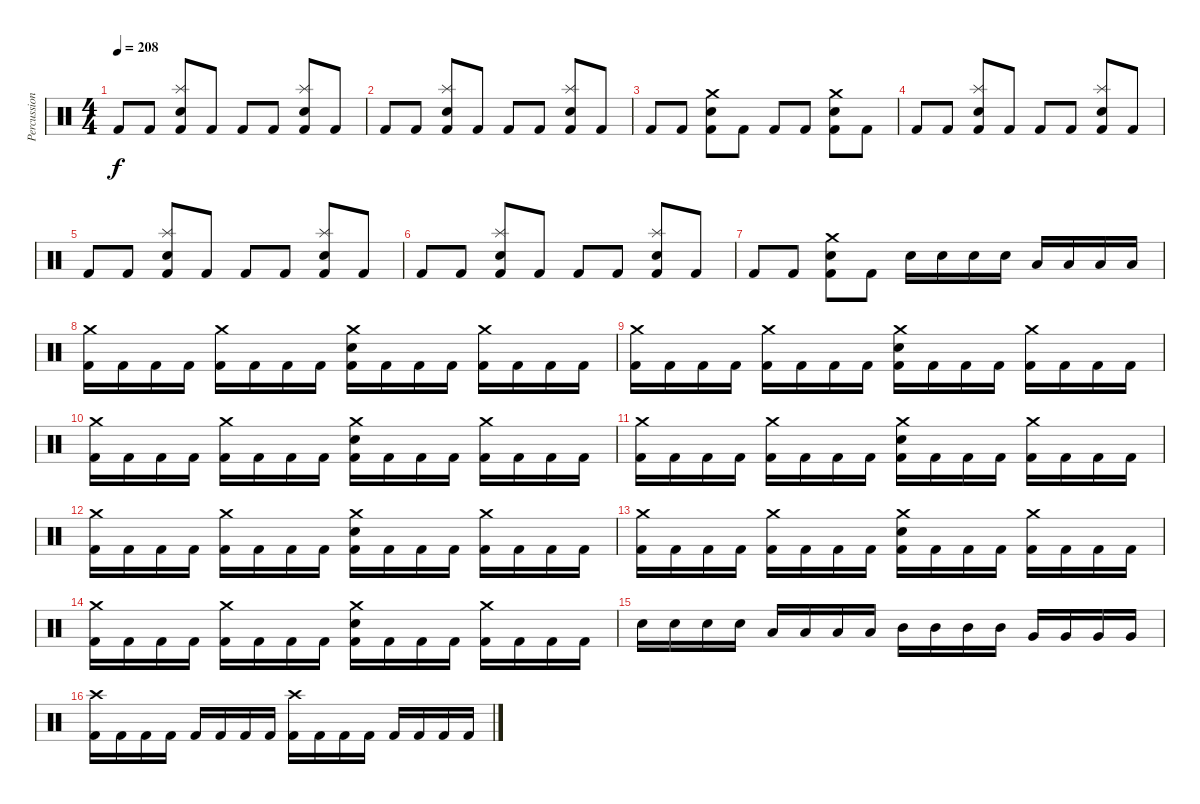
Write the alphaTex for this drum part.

\track ("Percussion" "Percussion") {instrument percussion}
\staff {score}
\articulation defaults
\ts (4 4)
\tempo 208
\clef neutral
\ks c "Kick (hit) 2".8{dy f} "Kick (hit) 2".8
("Splash (hit)" "Electric Snare (hit)" "Kick (hit) 2").8 "Kick (hit) 2".8 "Kick (hit) 2".8 "Kick (hit) 2".8 ("Splash (hit)" "Electric Snare (hit)" "Kick (hit) 2").8 "Kick (hit) 2".8 |
"Kick (hit) 2".8 "Kick (hit) 2".8 ("Splash (hit)" "Electric Snare (hit)" "Kick (hit) 2").8 "Kick (hit) 2".8 "Kick (hit) 2".8 "Kick (hit) 2".8 ("Splash (hit)" "Electric Snare (hit)" "Kick (hit) 2").8 "Kick (hit) 2".8 |
"Kick (hit) 2".8 "Kick (hit) 2".8 ("Crash medium (hit)" "Electric Snare (hit)" "Kick (hit) 2").8 "Kick (hit) 2".8 "Kick (hit) 2".8 "Kick (hit) 2".8 ("Crash medium (hit)" "Electric Snare (hit)" "Kick (hit) 2").8 "Kick (hit) 2".8 |
"Kick (hit) 2".8 "Kick (hit) 2".8 ("Splash (hit)" "Electric Snare (hit)" "Kick (hit) 2").8 "Kick (hit) 2".8 "Kick (hit) 2".8 "Kick (hit) 2".8 ("Splash (hit)" "Electric Snare (hit)" "Kick (hit) 2").8 "Kick (hit) 2".8 |
"Kick (hit) 2".8 "Kick (hit) 2".8 ("Splash (hit)" "Electric Snare (hit)" "Kick (hit) 2").8 "Kick (hit) 2".8 "Kick (hit) 2".8 "Kick (hit) 2".8 ("Splash (hit)" "Electric Snare (hit)" "Kick (hit) 2").8 "Kick (hit) 2".8 |
"Kick (hit) 2".8 "Kick (hit) 2".8 ("Splash (hit)" "Electric Snare (hit)" "Kick (hit) 2").8 "Kick (hit) 2".8 "Kick (hit) 2".8 "Kick (hit) 2".8 ("Splash (hit)" "Electric Snare (hit)" "Kick (hit) 2").8 "Kick (hit) 2".8 |
"Kick (hit) 2".8 "Kick (hit) 2".8 ("Crash medium (hit)" "Electric Snare (hit)" "Kick (hit) 2").8 "Kick (hit) 2".8 "Electric Snare (hit)".16 "Electric Snare (hit)".16 "Electric Snare (hit)".16 "Electric Snare (hit)".16 "Low Tom (hit)".16 "Low Tom (hit)".16 "Low Tom (hit)".16 "Low Tom (hit)".16 |
("Crash medium (hit)" "Kick (hit) 2").16 "Kick (hit) 2".16 "Kick (hit) 2".16 "Kick (hit) 2".16 ("Crash medium (hit)" "Kick (hit) 2").16 "Kick (hit) 2".16 "Kick (hit) 2".16 "Kick (hit) 2".16 ("Crash medium (hit)" "Electric Snare (hit)" "Kick (hit) 2").16 "Kick (hit) 2".16 "Kick (hit) 2".16 "Kick (hit) 2".16 ("Crash medium (hit)" "Kick (hit) 2").16 "Kick (hit) 2".16 "Kick (hit) 2".16 "Kick (hit) 2".16 |
("Crash medium (hit)" "Kick (hit) 2").16 "Kick (hit) 2".16 "Kick (hit) 2".16 "Kick (hit) 2".16 ("Crash medium (hit)" "Kick (hit) 2").16 "Kick (hit) 2".16 "Kick (hit) 2".16 "Kick (hit) 2".16 ("Crash medium (hit)" "Electric Snare (hit)" "Kick (hit) 2").16 "Kick (hit) 2".16 "Kick (hit) 2".16 "Kick (hit) 2".16 ("Crash medium (hit)" "Kick (hit) 2").16 "Kick (hit) 2".16 "Kick (hit) 2".16 "Kick (hit) 2".16 |
("Crash medium (hit)" "Kick (hit) 2").16 "Kick (hit) 2".16 "Kick (hit) 2".16 "Kick (hit) 2".16 ("Crash medium (hit)" "Kick (hit) 2").16 "Kick (hit) 2".16 "Kick (hit) 2".16 "Kick (hit) 2".16 ("Crash medium (hit)" "Electric Snare (hit)" "Kick (hit) 2").16 "Kick (hit) 2".16 "Kick (hit) 2".16 "Kick (hit) 2".16 ("Crash medium (hit)" "Kick (hit) 2").16 "Kick (hit) 2".16 "Kick (hit) 2".16 "Kick (hit) 2".16 |
("Crash medium (hit)" "Kick (hit) 2").16 "Kick (hit) 2".16 "Kick (hit) 2".16 "Kick (hit) 2".16 ("Crash medium (hit)" "Kick (hit) 2").16 "Kick (hit) 2".16 "Kick (hit) 2".16 "Kick (hit) 2".16 ("Crash medium (hit)" "Electric Snare (hit)" "Kick (hit) 2").16 "Kick (hit) 2".16 "Kick (hit) 2".16 "Kick (hit) 2".16 ("Crash medium (hit)" "Kick (hit) 2").16 "Kick (hit) 2".16 "Kick (hit) 2".16 "Kick (hit) 2".16 |
("Crash medium (hit)" "Kick (hit) 2").16 "Kick (hit) 2".16 "Kick (hit) 2".16 "Kick (hit) 2".16 ("Crash medium (hit)" "Kick (hit) 2").16 "Kick (hit) 2".16 "Kick (hit) 2".16 "Kick (hit) 2".16 ("Crash medium (hit)" "Electric Snare (hit)" "Kick (hit) 2").16 "Kick (hit) 2".16 "Kick (hit) 2".16 "Kick (hit) 2".16 ("Crash medium (hit)" "Kick (hit) 2").16 "Kick (hit) 2".16 "Kick (hit) 2".16 "Kick (hit) 2".16 |
("Crash medium (hit)" "Kick (hit) 2").16 "Kick (hit) 2".16 "Kick (hit) 2".16 "Kick (hit) 2".16 ("Crash medium (hit)" "Kick (hit) 2").16 "Kick (hit) 2".16 "Kick (hit) 2".16 "Kick (hit) 2".16 ("Crash medium (hit)" "Electric Snare (hit)" "Kick (hit) 2").16 "Kick (hit) 2".16 "Kick (hit) 2".16 "Kick (hit) 2".16 ("Crash medium (hit)" "Kick (hit) 2").16 "Kick (hit) 2".16 "Kick (hit) 2".16 "Kick (hit) 2".16 |
("Crash medium (hit)" "Kick (hit) 2").16 "Kick (hit) 2".16 "Kick (hit) 2".16 "Kick (hit) 2".16 ("Crash medium (hit)" "Kick (hit) 2").16 "Kick (hit) 2".16 "Kick (hit) 2".16 "Kick (hit) 2".16 ("Crash medium (hit)" "Electric Snare (hit)" "Kick (hit) 2").16 "Kick (hit) 2".16 "Kick (hit) 2".16 "Kick (hit) 2".16 ("Crash medium (hit)" "Kick (hit) 2").16 "Kick (hit) 2".16 "Kick (hit) 2".16 "Kick (hit) 2".16 |
"Electric Snare (hit)".16 "Electric Snare (hit)".16 "Electric Snare (hit)".16 "Electric Snare (hit)".16 "Low Tom (hit)".16 "Low Tom (hit)".16 "Low Tom (hit)".16 "Low Tom (hit)".16 "Mid Tom (hit)".16 "Mid Tom (hit)".16 "Mid Tom (hit)".16 "Mid Tom (hit)".16 "Very Low Tom (hit)".16 "Very Low Tom (hit)".16 "Very Low Tom (hit)".16 "Very Low Tom (hit)".16 |
("Crash high (hit)" "Kick (hit) 2").16 "Kick (hit) 2".16 "Kick (hit) 2".16 "Kick (hit) 2".16 "Kick (hit) 2".16 "Kick (hit) 2".16 "Kick (hit) 2".16 "Kick (hit) 2".16 ("Crash high (hit)" "Kick (hit) 2").16 "Kick (hit) 2".16 "Kick (hit) 2".16 "Kick (hit) 2".16 "Kick (hit) 2".16 "Kick (hit) 2".16 "Kick (hit) 2".16 "Kick (hit) 2".16
